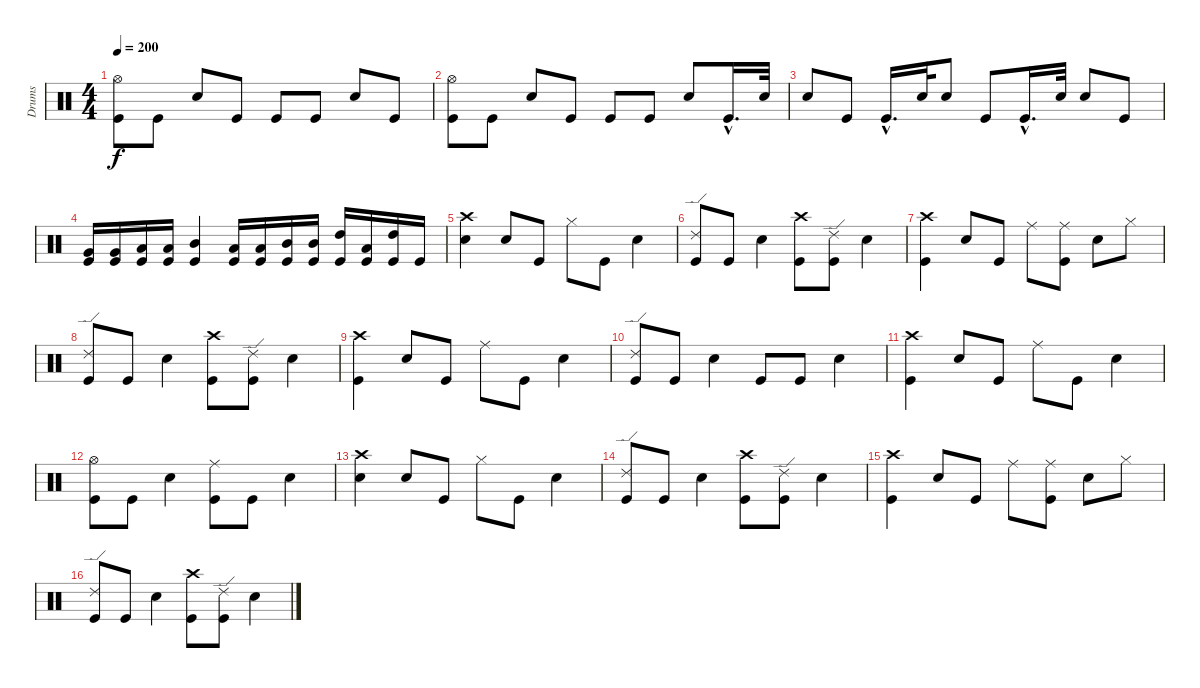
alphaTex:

\track ("Drums" "Drums") {instrument percussion}
\staff {score}
\articulation defaults
\ts (4 4)
\tempo 200
\clef neutral
\ks c
("Hi-Hat (open)" "Kick (hit)").8{dy f} "Kick (hit)".8 "Snare (hit) 2".8 "Kick (hit)".8 "Kick (hit)".8 "Kick (hit)".8 "Snare (hit) 2".8 "Kick (hit)".8 |
("Hi-Hat (open)" "Kick (hit)").8 "Kick (hit)".8 "Snare (hit) 2".8 "Kick (hit)".8 "Kick (hit)".8 "Kick (hit)".8 "Snare (hit) 2".8 "Kick (hit)"{hac}.16{d} "Snare (hit) 2".32 |
"Snare (hit) 2".8 "Kick (hit)".8 "Kick (hit)"{hac}.16{d} "Snare (hit) 2".32 "Snare (hit) 2".8 "Kick (hit)".8 "Kick (hit)"{hac}.16{d} "Snare (hit) 2".32 "Snare (hit) 2".8 "Kick (hit)".8 |
("Very Low Tom (hit)" "Kick (hit)").16 ("Very Low Tom (hit)" "Kick (hit)").16 ("Low Tom (hit)" "Kick (hit)").16 ("Low Tom (hit)" "Kick (hit)").16 ("Mid Tom (hit)" "Kick (hit)").4 ("Low Tom (hit)" "Kick (hit)").16 ("Low Tom (hit)" "Kick (hit)").16 ("Mid Tom (hit)" "Kick (hit)").16 ("Mid Tom (hit)" "Kick (hit)").16 ("High Tom (hit)" "Kick (hit)").16 ("Low Tom (hit)" "Kick (hit)").16 ("High Tom (hit)" "Kick (hit)").16 "Kick (hit)".16 |
("Crash high (hit)" "Snare (hit) 2").4 "Snare (hit) 2".8 "Kick (hit)".8 "Hi-Hat (closed)".8 "Kick (hit)".8 "Snare (hit) 2".4 |
("Ride (edge) 2" "Kick (hit)").8 "Kick (hit)".8 "Snare (hit) 2".4 ("Crash high (hit)" "Kick (hit)").8 ("Ride (edge) 2" "Kick (hit)").8 "Snare (hit) 2".4 |
("Crash high (hit)" "Kick (hit)").4 "Snare (hit) 2".8 "Kick (hit)".8 "Ride (middle)".8 ("Ride (middle)" "Kick (hit)").8 "Snare (hit) 2".8 "Hi-Hat (closed)".8 |
("Ride (edge) 2" "Kick (hit)").8 "Kick (hit)".8 "Snare (hit) 2".4 ("Crash high (hit)" "Kick (hit)").8 ("Ride (edge) 2" "Kick (hit)").8 "Snare (hit) 2".4 |
("Crash high (hit)" "Kick (hit)").4 "Snare (hit) 2".8 "Kick (hit)".8 "Ride (middle)".8 "Kick (hit)".8 "Snare (hit) 2".4 |
("Ride (edge) 2" "Kick (hit)").8 "Kick (hit)".8 "Snare (hit) 2".4 "Kick (hit)".8 "Kick (hit)".8 "Snare (hit) 2".4 |
("Crash high (hit)" "Kick (hit)").4 "Snare (hit) 2".8 "Kick (hit)".8 "Ride (middle)".8 "Kick (hit)".8 "Snare (hit) 2".4 |
("Hi-Hat (open)" "Kick (hit)").8 "Kick (hit)".8 "Snare (hit) 2".4 ("Ride (middle)" "Kick (hit)").8 "Kick (hit)".8 "Snare (hit) 2".4 |
("Crash high (hit)" "Snare (hit) 2").4 "Snare (hit) 2".8 "Kick (hit)".8 "Hi-Hat (closed)".8 "Kick (hit)".8 "Snare (hit) 2".4 |
("Ride (edge) 2" "Kick (hit)").8 "Kick (hit)".8 "Snare (hit) 2".4 ("Crash high (hit)" "Kick (hit)").8 ("Ride (edge) 2" "Kick (hit)").8 "Snare (hit) 2".4 |
("Crash high (hit)" "Kick (hit)").4 "Snare (hit) 2".8 "Kick (hit)".8 "Ride (middle)".8 ("Ride (middle)" "Kick (hit)").8 "Snare (hit) 2".8 "Hi-Hat (closed)".8 |
("Ride (edge) 2" "Kick (hit)").8 "Kick (hit)".8 "Snare (hit) 2".4 ("Crash high (hit)" "Kick (hit)").8 ("Ride (edge) 2" "Kick (hit)").8 "Snare (hit) 2".4
